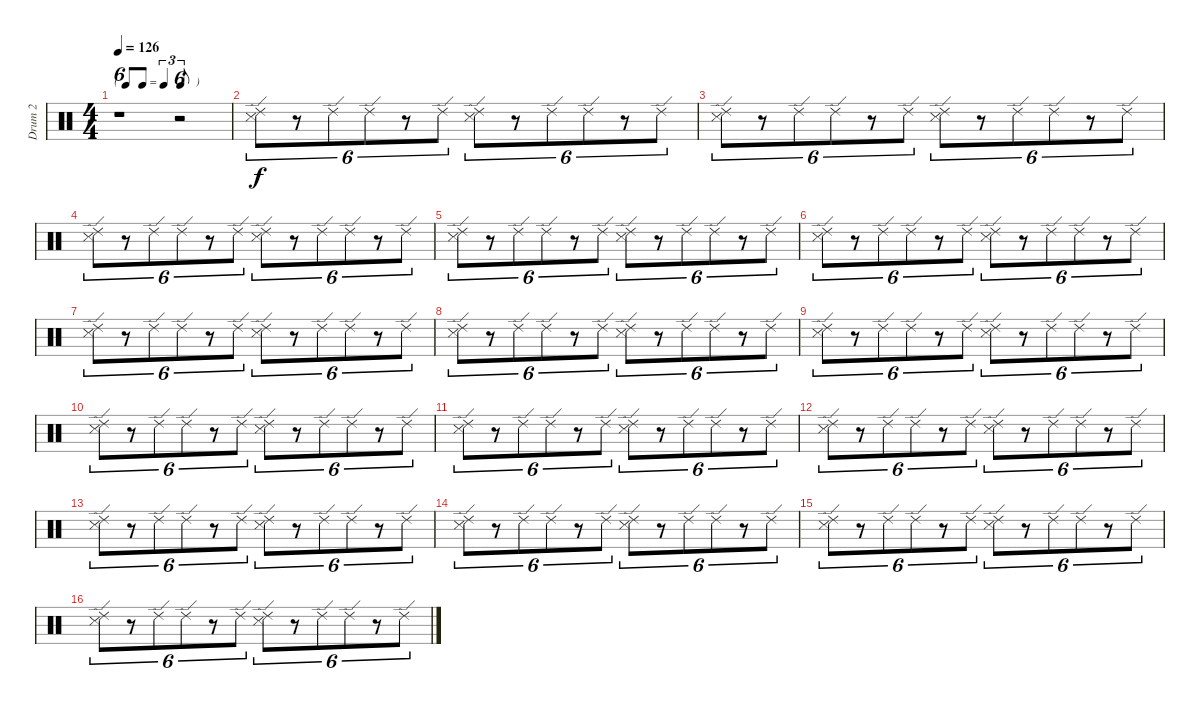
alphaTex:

\track ("Drum 2" "Drum 2") {instrument percussion}
\staff {score}
\articulation defaults
\ts (4 4)
\tf triplet8th
\tempo 126
\clef neutral
\ks c
r.1{tu (6 4) dy f} r.2{tu (6 4)} |
("Ride (edge) 2" "Snare (side stick) 3").8{tu (6 4)} r.8{tu (6 4)} "Ride (edge) 2".8{tu (6 4)} "Ride (edge) 2".8{tu (6 4)} r.8{tu (6 4)} "Ride (edge) 2".8{tu (6 4)} ("Ride (edge) 2" "Snare (side stick) 3").8{tu (6 4)} r.8{tu (6 4)} "Ride (edge) 2".8{tu (6 4)} "Ride (edge) 2".8{tu (6 4)} r.8{tu (6 4)} "Ride (edge) 2".8{tu (6 4)} |
("Ride (edge) 2" "Snare (side stick) 3").8{tu (6 4)} r.8{tu (6 4)} "Ride (edge) 2".8{tu (6 4)} "Ride (edge) 2".8{tu (6 4)} r.8{tu (6 4)} "Ride (edge) 2".8{tu (6 4)} ("Ride (edge) 2" "Snare (side stick) 3").8{tu (6 4)} r.8{tu (6 4)} "Ride (edge) 2".8{tu (6 4)} "Ride (edge) 2".8{tu (6 4)} r.8{tu (6 4)} "Ride (edge) 2".8{tu (6 4)} |
("Ride (edge) 2" "Snare (side stick) 3").8{tu (6 4)} r.8{tu (6 4)} "Ride (edge) 2".8{tu (6 4)} "Ride (edge) 2".8{tu (6 4)} r.8{tu (6 4)} "Ride (edge) 2".8{tu (6 4)} ("Ride (edge) 2" "Snare (side stick) 3").8{tu (6 4)} r.8{tu (6 4)} "Ride (edge) 2".8{tu (6 4)} "Ride (edge) 2".8{tu (6 4)} r.8{tu (6 4)} "Ride (edge) 2".8{tu (6 4)} |
("Ride (edge) 2" "Snare (side stick) 3").8{tu (6 4)} r.8{tu (6 4)} "Ride (edge) 2".8{tu (6 4)} "Ride (edge) 2".8{tu (6 4)} r.8{tu (6 4)} "Ride (edge) 2".8{tu (6 4)} ("Ride (edge) 2" "Snare (side stick) 3").8{tu (6 4)} r.8{tu (6 4)} "Ride (edge) 2".8{tu (6 4)} "Ride (edge) 2".8{tu (6 4)} r.8{tu (6 4)} "Ride (edge) 2".8{tu (6 4)} |
("Ride (edge) 2" "Snare (side stick) 3").8{tu (6 4)} r.8{tu (6 4)} "Ride (edge) 2".8{tu (6 4)} "Ride (edge) 2".8{tu (6 4)} r.8{tu (6 4)} "Ride (edge) 2".8{tu (6 4)} ("Ride (edge) 2" "Snare (side stick) 3").8{tu (6 4)} r.8{tu (6 4)} "Ride (edge) 2".8{tu (6 4)} "Ride (edge) 2".8{tu (6 4)} r.8{tu (6 4)} "Ride (edge) 2".8{tu (6 4)} |
("Ride (edge) 2" "Snare (side stick) 3").8{tu (6 4)} r.8{tu (6 4)} "Ride (edge) 2".8{tu (6 4)} "Ride (edge) 2".8{tu (6 4)} r.8{tu (6 4)} "Ride (edge) 2".8{tu (6 4)} ("Ride (edge) 2" "Snare (side stick) 3").8{tu (6 4)} r.8{tu (6 4)} "Ride (edge) 2".8{tu (6 4)} "Ride (edge) 2".8{tu (6 4)} r.8{tu (6 4)} "Ride (edge) 2".8{tu (6 4)} |
("Ride (edge) 2" "Snare (side stick) 3").8{tu (6 4)} r.8{tu (6 4)} "Ride (edge) 2".8{tu (6 4)} "Ride (edge) 2".8{tu (6 4)} r.8{tu (6 4)} "Ride (edge) 2".8{tu (6 4)} ("Ride (edge) 2" "Snare (side stick) 3").8{tu (6 4)} r.8{tu (6 4)} "Ride (edge) 2".8{tu (6 4)} "Ride (edge) 2".8{tu (6 4)} r.8{tu (6 4)} "Ride (edge) 2".8{tu (6 4)} |
("Ride (edge) 2" "Snare (side stick) 3").8{tu (6 4)} r.8{tu (6 4)} "Ride (edge) 2".8{tu (6 4)} "Ride (edge) 2".8{tu (6 4)} r.8{tu (6 4)} "Ride (edge) 2".8{tu (6 4)} ("Ride (edge) 2" "Snare (side stick) 3").8{tu (6 4)} r.8{tu (6 4)} "Ride (edge) 2".8{tu (6 4)} "Ride (edge) 2".8{tu (6 4)} r.8{tu (6 4)} "Ride (edge) 2".8{tu (6 4)} |
("Ride (edge) 2" "Snare (side stick) 3").8{tu (6 4)} r.8{tu (6 4)} "Ride (edge) 2".8{tu (6 4)} "Ride (edge) 2".8{tu (6 4)} r.8{tu (6 4)} "Ride (edge) 2".8{tu (6 4)} ("Ride (edge) 2" "Snare (side stick) 3").8{tu (6 4)} r.8{tu (6 4)} "Ride (edge) 2".8{tu (6 4)} "Ride (edge) 2".8{tu (6 4)} r.8{tu (6 4)} "Ride (edge) 2".8{tu (6 4)} |
("Ride (edge) 2" "Snare (side stick) 3").8{tu (6 4)} r.8{tu (6 4)} "Ride (edge) 2".8{tu (6 4)} "Ride (edge) 2".8{tu (6 4)} r.8{tu (6 4)} "Ride (edge) 2".8{tu (6 4)} ("Ride (edge) 2" "Snare (side stick) 3").8{tu (6 4)} r.8{tu (6 4)} "Ride (edge) 2".8{tu (6 4)} "Ride (edge) 2".8{tu (6 4)} r.8{tu (6 4)} "Ride (edge) 2".8{tu (6 4)} |
("Ride (edge) 2" "Snare (side stick) 3").8{tu (6 4)} r.8{tu (6 4)} "Ride (edge) 2".8{tu (6 4)} "Ride (edge) 2".8{tu (6 4)} r.8{tu (6 4)} "Ride (edge) 2".8{tu (6 4)} ("Ride (edge) 2" "Snare (side stick) 3").8{tu (6 4)} r.8{tu (6 4)} "Ride (edge) 2".8{tu (6 4)} "Ride (edge) 2".8{tu (6 4)} r.8{tu (6 4)} "Ride (edge) 2".8{tu (6 4)} |
("Ride (edge) 2" "Snare (side stick) 3").8{tu (6 4)} r.8{tu (6 4)} "Ride (edge) 2".8{tu (6 4)} "Ride (edge) 2".8{tu (6 4)} r.8{tu (6 4)} "Ride (edge) 2".8{tu (6 4)} ("Ride (edge) 2" "Snare (side stick) 3").8{tu (6 4)} r.8{tu (6 4)} "Ride (edge) 2".8{tu (6 4)} "Ride (edge) 2".8{tu (6 4)} r.8{tu (6 4)} "Ride (edge) 2".8{tu (6 4)} |
("Ride (edge) 2" "Snare (side stick) 3").8{tu (6 4)} r.8{tu (6 4)} "Ride (edge) 2".8{tu (6 4)} "Ride (edge) 2".8{tu (6 4)} r.8{tu (6 4)} "Ride (edge) 2".8{tu (6 4)} ("Ride (edge) 2" "Snare (side stick) 3").8{tu (6 4)} r.8{tu (6 4)} "Ride (edge) 2".8{tu (6 4)} "Ride (edge) 2".8{tu (6 4)} r.8{tu (6 4)} "Ride (edge) 2".8{tu (6 4)} |
("Ride (edge) 2" "Snare (side stick) 3").8{tu (6 4)} r.8{tu (6 4)} "Ride (edge) 2".8{tu (6 4)} "Ride (edge) 2".8{tu (6 4)} r.8{tu (6 4)} "Ride (edge) 2".8{tu (6 4)} ("Ride (edge) 2" "Snare (side stick) 3").8{tu (6 4)} r.8{tu (6 4)} "Ride (edge) 2".8{tu (6 4)} "Ride (edge) 2".8{tu (6 4)} r.8{tu (6 4)} "Ride (edge) 2".8{tu (6 4)} |
("Ride (edge) 2" "Snare (side stick) 3").8{tu (6 4)} r.8{tu (6 4)} "Ride (edge) 2".8{tu (6 4)} "Ride (edge) 2".8{tu (6 4)} r.8{tu (6 4)} "Ride (edge) 2".8{tu (6 4)} ("Ride (edge) 2" "Snare (side stick) 3").8{tu (6 4)} r.8{tu (6 4)} "Ride (edge) 2".8{tu (6 4)} "Ride (edge) 2".8{tu (6 4)} r.8{tu (6 4)} "Ride (edge) 2".8{tu (6 4)}
